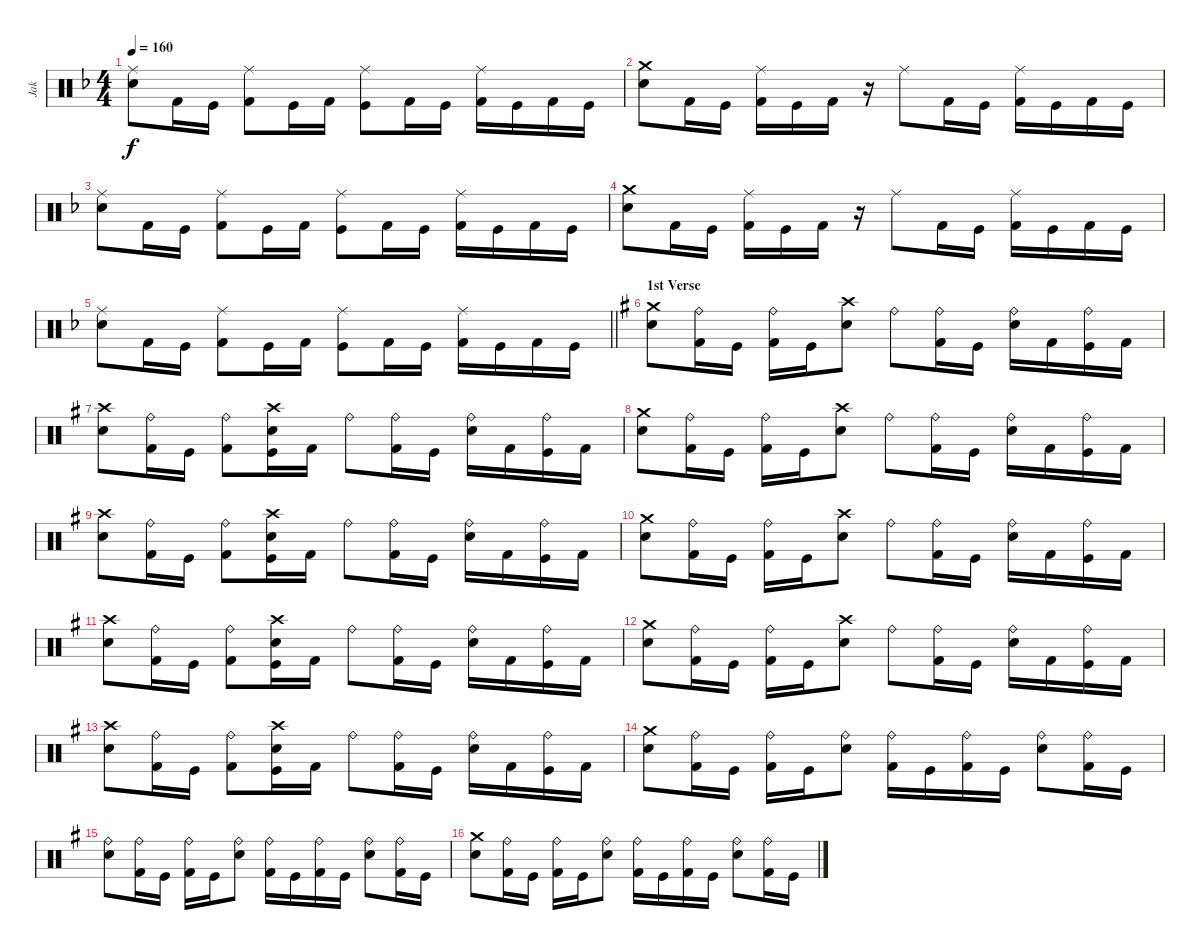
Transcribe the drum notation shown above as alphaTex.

\track ("Jak" "Jak") {instrument percussion}
\staff {score}
\articulation defaults
\ts (4 4)
\tempo 160
\clef neutral
\ks dminor
("Ride (middle)" "Snare (hit) 2").8{dy f} "Kick (hit) 2".16 "Kick (hit)".16 ("Ride (middle)" "Kick (hit) 2").8 "Kick (hit)".16 "Kick (hit) 2".16 ("Ride (middle)" "Kick (hit)").8 "Kick (hit) 2".16 "Kick (hit)".16 ("Ride (middle)" "Kick (hit) 2").16 "Kick (hit)".16 "Kick (hit) 2".16 "Kick (hit)".16 |
("Crash medium (hit)" "Snare (hit) 2").8 "Kick (hit) 2".16 "Kick (hit)".16 ("Ride (middle)" "Kick (hit) 2").16 "Kick (hit)".16 "Kick (hit) 2".16 r.16 "Ride (middle)".8 "Kick (hit) 2".16 "Kick (hit)".16 ("Ride (middle)" "Kick (hit) 2").16 "Kick (hit)".16 "Kick (hit) 2".16 "Kick (hit)".16 |
("Ride (middle)" "Snare (hit) 2").8 "Kick (hit) 2".16 "Kick (hit)".16 ("Ride (middle)" "Kick (hit) 2").8 "Kick (hit)".16 "Kick (hit) 2".16 ("Ride (middle)" "Kick (hit)").8 "Kick (hit) 2".16 "Kick (hit)".16 ("Ride (middle)" "Kick (hit) 2").16 "Kick (hit)".16 "Kick (hit) 2".16 "Kick (hit)".16 |
("Crash medium (hit)" "Snare (hit) 2").8 "Kick (hit) 2".16 "Kick (hit)".16 ("Ride (middle)" "Kick (hit) 2").16 "Kick (hit)".16 "Kick (hit) 2".16 r.16 "Ride (middle)".8 "Kick (hit) 2".16 "Kick (hit)".16 ("Ride (middle)" "Kick (hit) 2").16 "Kick (hit)".16 "Kick (hit) 2".16 "Kick (hit)".16 |
\barLineRight lightlight
("Ride (middle)" "Snare (hit) 2").8 "Kick (hit) 2".16 "Kick (hit)".16 ("Ride (middle)" "Kick (hit) 2").8 "Kick (hit)".16 "Kick (hit) 2".16 ("Ride (middle)" "Kick (hit)").8 "Kick (hit) 2".16 "Kick (hit)".16 ("Ride (middle)" "Kick (hit) 2").16 "Kick (hit)".16 "Kick (hit) 2".16 "Kick (hit)".16 |
\section ("" "1st Verse")
\ks eminor
("Crash medium (hit)" "Snare (hit) 2").8 ("Ride (bell)" "Kick (hit) 2").16 "Kick (hit)".16 ("Ride (bell)" "Kick (hit) 2").16 "Kick (hit)".16 ("Crash high (hit)" "Snare (hit) 2").8 "Ride (bell)".8 ("Ride (bell)" "Kick (hit) 2").16 "Kick (hit)".16 ("Ride (bell)" "Snare (hit) 2").16 "Kick (hit) 2".16 ("Ride (bell)" "Kick (hit)").16 "Kick (hit) 2".16 |
("Crash high (hit)" "Snare (hit) 2").8 ("Ride (bell)" "Kick (hit) 2").16 "Kick (hit)".16 ("Ride (bell)" "Kick (hit) 2").8 ("Crash high (hit)" "Snare (hit) 2" "Kick (hit)").16 "Kick (hit) 2".16 "Ride (bell)".8 ("Ride (bell)" "Kick (hit) 2").16 "Kick (hit)".16 ("Ride (bell)" "Snare (hit) 2").16 "Kick (hit) 2".16 ("Ride (bell)" "Kick (hit)").16 "Kick (hit) 2".16 |
("Crash medium (hit)" "Snare (hit) 2").8 ("Ride (bell)" "Kick (hit) 2").16 "Kick (hit)".16 ("Ride (bell)" "Kick (hit) 2").16 "Kick (hit)".16 ("Crash high (hit)" "Snare (hit) 2").8 "Ride (bell)".8 ("Ride (bell)" "Kick (hit) 2").16 "Kick (hit)".16 ("Ride (bell)" "Snare (hit) 2").16 "Kick (hit) 2".16 ("Ride (bell)" "Kick (hit)").16 "Kick (hit) 2".16 |
("Crash high (hit)" "Snare (hit) 2").8 ("Ride (bell)" "Kick (hit) 2").16 "Kick (hit)".16 ("Ride (bell)" "Kick (hit) 2").8 ("Crash high (hit)" "Snare (hit) 2" "Kick (hit)").16 "Kick (hit) 2".16 "Ride (bell)".8 ("Ride (bell)" "Kick (hit) 2").16 "Kick (hit)".16 ("Ride (bell)" "Snare (hit) 2").16 "Kick (hit) 2".16 ("Ride (bell)" "Kick (hit)").16 "Kick (hit) 2".16 |
("Crash medium (hit)" "Snare (hit) 2").8 ("Ride (bell)" "Kick (hit) 2").16 "Kick (hit)".16 ("Ride (bell)" "Kick (hit) 2").16 "Kick (hit)".16 ("Crash high (hit)" "Snare (hit) 2").8 "Ride (bell)".8 ("Ride (bell)" "Kick (hit) 2").16 "Kick (hit)".16 ("Ride (bell)" "Snare (hit) 2").16 "Kick (hit) 2".16 ("Ride (bell)" "Kick (hit)").16 "Kick (hit) 2".16 |
("Crash high (hit)" "Snare (hit) 2").8 ("Ride (bell)" "Kick (hit) 2").16 "Kick (hit)".16 ("Ride (bell)" "Kick (hit) 2").8 ("Crash high (hit)" "Snare (hit) 2" "Kick (hit)").16 "Kick (hit) 2".16 "Ride (bell)".8 ("Ride (bell)" "Kick (hit) 2").16 "Kick (hit)".16 ("Ride (bell)" "Snare (hit) 2").16 "Kick (hit) 2".16 ("Ride (bell)" "Kick (hit)").16 "Kick (hit) 2".16 |
("Crash medium (hit)" "Snare (hit) 2").8 ("Ride (bell)" "Kick (hit) 2").16 "Kick (hit)".16 ("Ride (bell)" "Kick (hit) 2").16 "Kick (hit)".16 ("Crash high (hit)" "Snare (hit) 2").8 "Ride (bell)".8 ("Ride (bell)" "Kick (hit) 2").16 "Kick (hit)".16 ("Ride (bell)" "Snare (hit) 2").16 "Kick (hit) 2".16 ("Ride (bell)" "Kick (hit)").16 "Kick (hit) 2".16 |
("Crash high (hit)" "Snare (hit) 2").8 ("Ride (bell)" "Kick (hit) 2").16 "Kick (hit)".16 ("Ride (bell)" "Kick (hit) 2").8 ("Crash high (hit)" "Snare (hit) 2" "Kick (hit)").16 "Kick (hit) 2".16 "Ride (bell)".8 ("Ride (bell)" "Kick (hit) 2").16 "Kick (hit)".16 ("Ride (bell)" "Snare (hit) 2").16 "Kick (hit) 2".16 ("Ride (bell)" "Kick (hit)").16 "Kick (hit) 2".16 |
("Crash medium (hit)" "Snare (hit) 2").8 ("Ride (bell)" "Kick (hit) 2").16 "Kick (hit)".16 ("Ride (bell)" "Kick (hit) 2").16 "Kick (hit)".16 ("Ride (bell)" "Snare (hit) 2").8 ("Ride (bell)" "Kick (hit) 2").16 "Kick (hit)".16 ("Ride (bell)" "Kick (hit) 2").16 "Kick (hit)".16 ("Ride (bell)" "Snare (hit) 2").8 ("Ride (bell)" "Kick (hit) 2").16 "Kick (hit)".16 |
("Ride (bell)" "Snare (hit) 2").8 ("Ride (bell)" "Kick (hit) 2").16 "Kick (hit)".16 ("Ride (bell)" "Kick (hit) 2").16 "Kick (hit)".16 ("Ride (bell)" "Snare (hit) 2").8 ("Ride (bell)" "Kick (hit) 2").16 "Kick (hit)".16 ("Ride (bell)" "Kick (hit) 2").16 "Kick (hit)".16 ("Ride (bell)" "Snare (hit) 2").8 ("Ride (bell)" "Kick (hit) 2").16 "Kick (hit)".16 |
("Crash medium (hit)" "Snare (hit) 2").8 ("Ride (bell)" "Kick (hit) 2").16 "Kick (hit)".16 ("Ride (bell)" "Kick (hit) 2").16 "Kick (hit)".16 ("Ride (bell)" "Snare (hit) 2").8 ("Ride (bell)" "Kick (hit) 2").16 "Kick (hit)".16 ("Ride (bell)" "Kick (hit) 2").16 "Kick (hit)".16 ("Ride (bell)" "Snare (hit) 2").8 ("Ride (bell)" "Kick (hit) 2").16 "Kick (hit)".16
